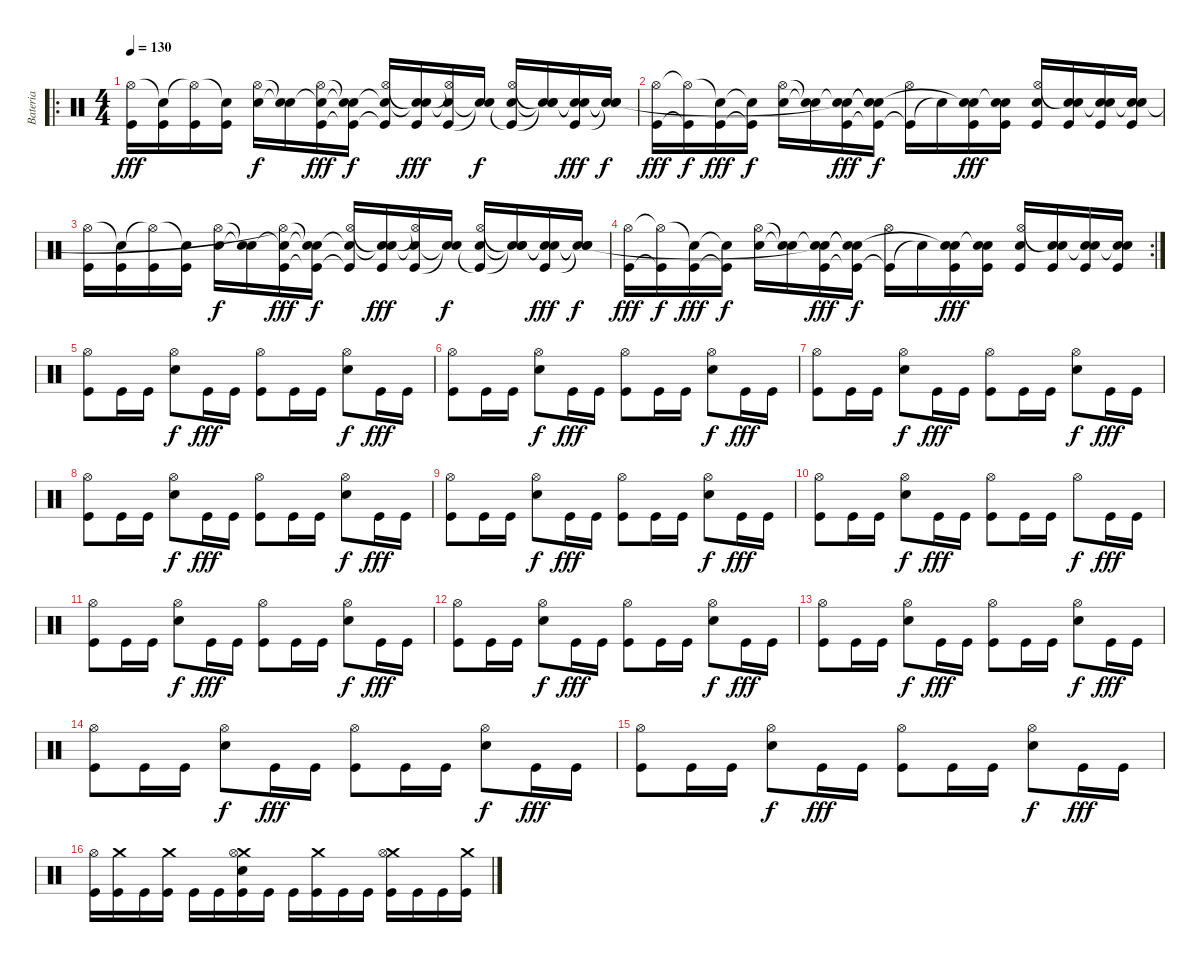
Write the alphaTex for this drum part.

\track ("Bateria" "Bateria") {instrument percussion}
\staff {score}
\articulation defaults
\ro
\ts (4 4)
\tempo 130
\clef neutral
\ks c
("Kick (hit)" "Hi-Hat (open)").16{dy fff} ("Kick (hit)" "Snare (hit)"{t}).16 ("Kick (hit)" "Hi-Hat (open)"{t}).16 ("Kick (hit)" "Snare (hit)"{t}).16 ("Electric Snare (hit)" "Hi-Hat (open)").16{dy f} ("Snare (hit)"{t} "Snare (hit)"{t}).16 ("Kick (hit)" "Snare (hit)"{t} "Hi-Hat (open)").16{dy fff} ("Kick (hit)"{t} "Snare (hit)"{t} "Snare (hit)"{t}).16{dy f} ("Kick (hit)"{t} "Snare (hit)"{t} "Hi-Hat (open)").16 ("Kick (hit)" "Snare (hit)"{t} "Snare (hit)"{t}).16{dy fff} ("Kick (hit)" "Electric Snare (hit)"{t} "Hi-Hat (open)"{t}).16 ("Snare (hit)"{t} "Snare (hit)"{t}).16{dy f} ("Kick (hit)"{t} "Electric Snare (hit)" "Hi-Hat (open)").16 ("Snare (hit)"{t} "Snare (hit)"{t} "Snare (hit)"{t}).16 ("Kick (hit)" "Snare (hit)"{t} "Snare (hit)"{t}).16{dy fff} ("Snare (hit)"{t} "Snare (hit)"{t} "Snare (hit)"{t}).16{dy f} |
("Kick (hit)" "Hi-Hat (open)").16{dy fff} ("Kick (hit)"{t} "Hi-Hat (open)"{t}).16{dy f} ("Kick (hit)" "Snare (hit)"{t}).16{dy fff} ("Kick (hit)"{t} "Snare (hit)"{t}).16{dy f} ("Electric Snare (hit)" "Hi-Hat (open)").16 ("Snare (hit)"{t} "Snare (hit)"{t}).16 ("Kick (hit)" "Snare (hit)"{t} "Snare (hit)"{t}).16{dy fff} ("Kick (hit)"{t} "Snare (hit)"{t} "Snare (hit)"{t}).16{dy f} ("Kick (hit)"{t} "Hi-Hat (open)").16 "Snare (hit)"{t}.16 ("Kick (hit)" "Electric Snare (hit)" "Snare (hit)"{t}).16{dy fff} ("Kick (hit)" "Electric Snare (hit)" "Snare (hit)"{t}).16 ("Kick (hit)" "Electric Snare (hit)" "Hi-Hat (open)").16 ("Kick (hit)" "Electric Snare (hit)" "Snare (hit)"{t}).16 ("Kick (hit)" "Electric Snare (hit)" "Snare (hit)"{t}).16 ("Kick (hit)" "Electric Snare (hit)" "Snare (hit)"{t}).16 |
("Kick (hit)" "Hi-Hat (open)").16 ("Kick (hit)" "Snare (hit)"{t}).16 ("Kick (hit)" "Hi-Hat (open)"{t}).16 ("Kick (hit)" "Snare (hit)"{t}).16 ("Electric Snare (hit)" "Hi-Hat (open)").16{dy f} ("Snare (hit)"{t} "Snare (hit)"{t}).16 ("Kick (hit)" "Snare (hit)"{t} "Hi-Hat (open)"{t}).16{dy fff} ("Kick (hit)"{t} "Snare (hit)"{t} "Snare (hit)"{t}).16{dy f} ("Kick (hit)"{t} "Snare (hit)"{t} "Hi-Hat (open)").16 ("Kick (hit)" "Snare (hit)"{t} "Snare (hit)"{t}).16{dy fff} ("Kick (hit)" "Electric Snare (hit)"{t} "Hi-Hat (open)"{t}).16 ("Snare (hit)"{t} "Snare (hit)"{t}).16{dy f} ("Kick (hit)"{t} "Electric Snare (hit)" "Hi-Hat (open)").16 ("Snare (hit)"{t} "Snare (hit)"{t} "Snare (hit)"{t}).16 ("Kick (hit)" "Snare (hit)"{t} "Snare (hit)"{t}).16{dy fff} ("Snare (hit)"{t} "Snare (hit)"{t} "Snare (hit)"{t}).16{dy f} |
\rc 2
("Kick (hit)" "Hi-Hat (open)").16{dy fff} ("Kick (hit)"{t} "Hi-Hat (open)"{t}).16{dy f} ("Kick (hit)" "Snare (hit)"{t}).16{dy fff} ("Kick (hit)"{t} "Snare (hit)"{t}).16{dy f} ("Electric Snare (hit)" "Hi-Hat (open)").16 ("Snare (hit)"{t} "Snare (hit)"{t}).16 ("Kick (hit)" "Snare (hit)"{t} "Snare (hit)"{t}).16{dy fff} ("Kick (hit)"{t} "Snare (hit)"{t} "Snare (hit)"{t}).16{dy f} ("Kick (hit)"{t} "Hi-Hat (open)").16 "Snare (hit)"{t}.16 ("Kick (hit)" "Electric Snare (hit)" "Snare (hit)"{t}).16{dy fff} ("Kick (hit)" "Electric Snare (hit)" "Snare (hit)"{t}).16 ("Kick (hit)" "Electric Snare (hit)" "Hi-Hat (open)").16 ("Kick (hit)" "Electric Snare (hit)" "Snare (hit)"{t}).16 ("Kick (hit)" "Electric Snare (hit)" "Snare (hit)"{t}).16 ("Kick (hit)" "Electric Snare (hit)" "Snare (hit)"{t}).16 |
("Kick (hit)" "Hi-Hat (open)").8 "Kick (hit)".16 "Kick (hit)".16 ("Electric Snare (hit)" "Hi-Hat (open)").8{dy f} "Kick (hit)".16{dy fff} "Kick (hit)".16 ("Kick (hit)" "Hi-Hat (open)").8 "Kick (hit)".16 "Kick (hit)".16 ("Electric Snare (hit)" "Hi-Hat (open)").8{dy f} "Kick (hit)".16{dy fff} "Kick (hit)".16 |
("Kick (hit)" "Hi-Hat (open)").8 "Kick (hit)".16 "Kick (hit)".16 ("Electric Snare (hit)" "Hi-Hat (open)").8{dy f} "Kick (hit)".16{dy fff} "Kick (hit)".16 ("Kick (hit)" "Hi-Hat (open)").8 "Kick (hit)".16 "Kick (hit)".16 ("Electric Snare (hit)" "Hi-Hat (open)").8{dy f} "Kick (hit)".16{dy fff} "Kick (hit)".16 |
("Kick (hit)" "Hi-Hat (open)").8 "Kick (hit)".16 "Kick (hit)".16 ("Electric Snare (hit)" "Hi-Hat (open)").8{dy f} "Kick (hit)".16{dy fff} "Kick (hit)".16 ("Kick (hit)" "Hi-Hat (open)").8 "Kick (hit)".16 "Kick (hit)".16 ("Electric Snare (hit)" "Hi-Hat (open)").8{dy f} "Kick (hit)".16{dy fff} "Kick (hit)".16 |
("Kick (hit)" "Hi-Hat (open)").8 "Kick (hit)".16 "Kick (hit)".16 ("Electric Snare (hit)" "Hi-Hat (open)").8{dy f} "Kick (hit)".16{dy fff} "Kick (hit)".16 ("Kick (hit)" "Hi-Hat (open)").8 "Kick (hit)".16 "Kick (hit)".16 ("Electric Snare (hit)" "Hi-Hat (open)").8{dy f} "Kick (hit)".16{dy fff} "Kick (hit)".16 |
("Kick (hit)" "Hi-Hat (open)").8 "Kick (hit)".16 "Kick (hit)".16 ("Electric Snare (hit)" "Hi-Hat (open)").8{dy f} "Kick (hit)".16{dy fff} "Kick (hit)".16 ("Kick (hit)" "Hi-Hat (open)").8 "Kick (hit)".16 "Kick (hit)".16 ("Electric Snare (hit)" "Hi-Hat (open)").8{dy f} "Kick (hit)".16{dy fff} "Kick (hit)".16 |
("Kick (hit)" "Hi-Hat (open)").8 "Kick (hit)".16 "Kick (hit)".16 ("Electric Snare (hit)" "Hi-Hat (open)").8{dy f} "Kick (hit)".16{dy fff} "Kick (hit)".16 ("Kick (hit)" "Hi-Hat (open)").8 "Kick (hit)".16 "Kick (hit)".16 "Hi-Hat (open)".8{dy f} "Kick (hit)".16{dy fff} "Kick (hit)".16 |
("Kick (hit)" "Hi-Hat (open)").8 "Kick (hit)".16 "Kick (hit)".16 ("Electric Snare (hit)" "Hi-Hat (open)").8{dy f} "Kick (hit)".16{dy fff} "Kick (hit)".16 ("Kick (hit)" "Hi-Hat (open)").8 "Kick (hit)".16 "Kick (hit)".16 ("Electric Snare (hit)" "Hi-Hat (open)").8{dy f} "Kick (hit)".16{dy fff} "Kick (hit)".16 |
("Kick (hit)" "Hi-Hat (open)").8 "Kick (hit)".16 "Kick (hit)".16 ("Electric Snare (hit)" "Hi-Hat (open)").8{dy f} "Kick (hit)".16{dy fff} "Kick (hit)".16 ("Kick (hit)" "Hi-Hat (open)").8 "Kick (hit)".16 "Kick (hit)".16 ("Electric Snare (hit)" "Hi-Hat (open)").8{dy f} "Kick (hit)".16{dy fff} "Kick (hit)".16 |
("Kick (hit)" "Hi-Hat (open)").8 "Kick (hit)".16 "Kick (hit)".16 ("Electric Snare (hit)" "Hi-Hat (open)").8{dy f} "Kick (hit)".16{dy fff} "Kick (hit)".16 ("Kick (hit)" "Hi-Hat (open)").8 "Kick (hit)".16 "Kick (hit)".16 ("Electric Snare (hit)" "Hi-Hat (open)").8{dy f} "Kick (hit)".16{dy fff} "Kick (hit)".16 |
("Kick (hit)" "Hi-Hat (open)").8 "Kick (hit)".16 "Kick (hit)".16 ("Electric Snare (hit)" "Hi-Hat (open)").8{dy f} "Kick (hit)".16{dy fff} "Kick (hit)".16 ("Kick (hit)" "Hi-Hat (open)").8 "Kick (hit)".16 "Kick (hit)".16 ("Electric Snare (hit)" "Hi-Hat (open)").8{dy f} "Kick (hit)".16{dy fff} "Kick (hit)".16 |
("Kick (hit)" "Hi-Hat (open)").8 "Kick (hit)".16 "Kick (hit)".16 ("Electric Snare (hit)" "Hi-Hat (open)").8{dy f} "Kick (hit)".16{dy fff} "Kick (hit)".16 ("Kick (hit)" "Hi-Hat (open)").8 "Kick (hit)".16 "Kick (hit)".16 ("Electric Snare (hit)" "Hi-Hat (open)").8{dy f} "Kick (hit)".16{dy fff} "Kick (hit)".16 |
("Kick (hit)" "Hi-Hat (open)").16 ("Kick (hit)" "Crash medium (hit)").16 "Kick (hit)".16 ("Kick (hit)" "Crash medium (hit)").16 "Kick (hit)".16 "Kick (hit)".16 ("Kick (hit)" "Crash medium (hit)" "Electric Snare (hit)" "Hi-Hat (open)").16 "Kick (hit)".16 "Kick (hit)".16 ("Kick (hit)" "Crash medium (hit)").16 "Kick (hit)".16 "Kick (hit)".16 ("Kick (hit)" "Crash medium (hit)" "Hi-Hat (open)").16 "Kick (hit)".16 "Kick (hit)".16 ("Kick (hit)" "Crash medium (hit)").16
